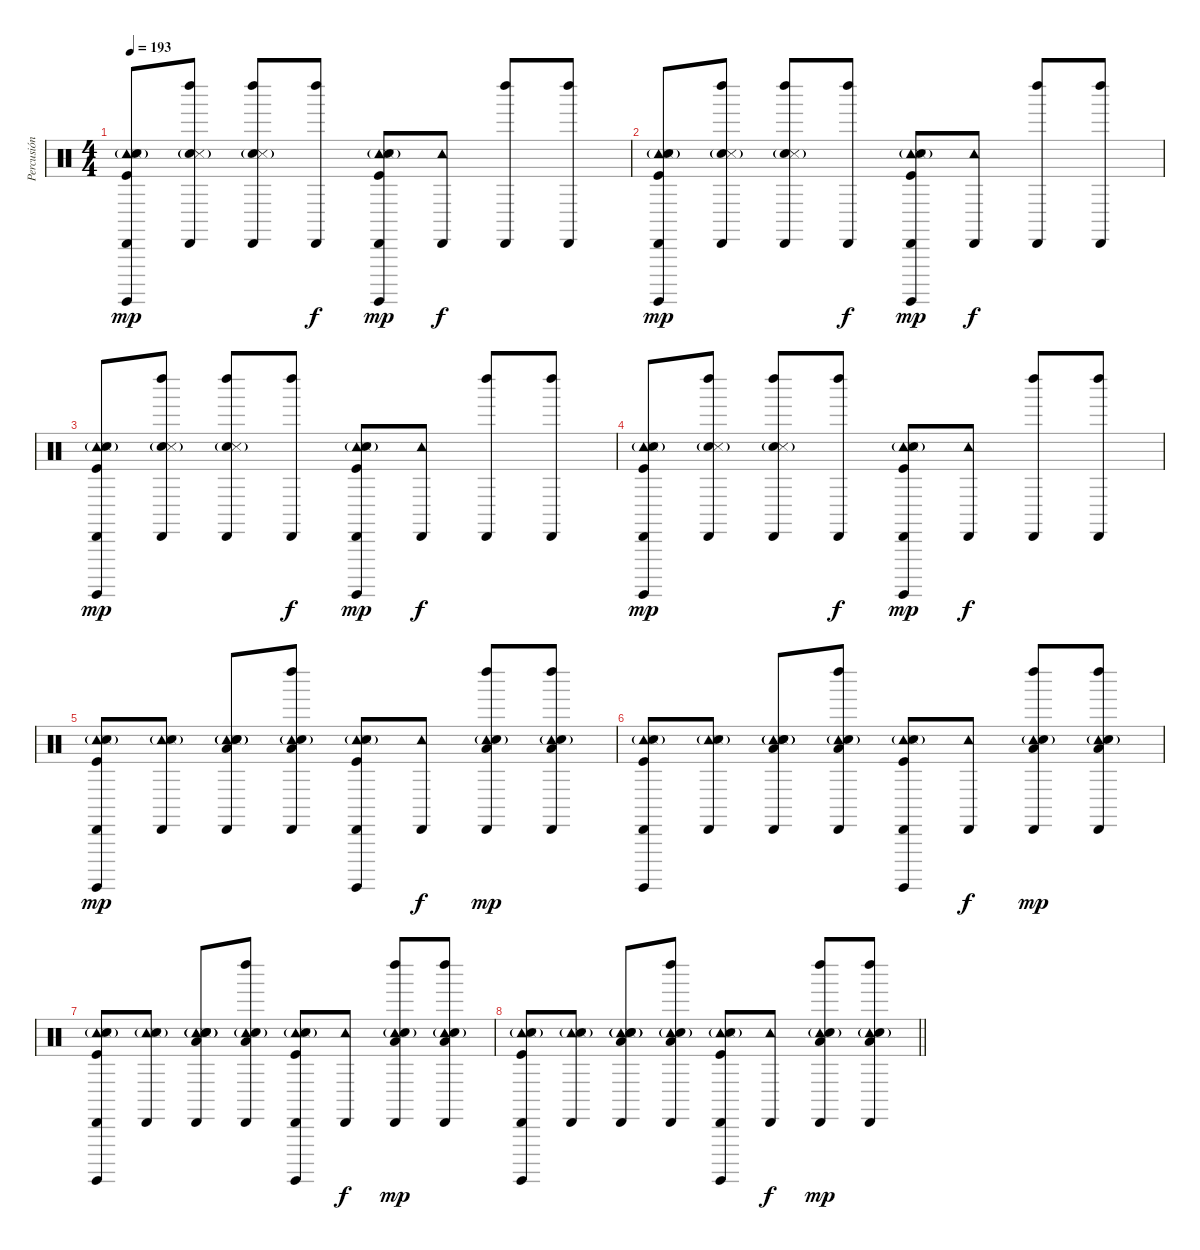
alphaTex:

\track ("Percusión" "Percusión") {instrument percussion}
\staff {score}
\articulation defaults
\ts (4 4)
\tempo 193
\clef neutral
\ks c
("Cabasa (hit)" "Tambourine (hit)" "Hand Clap (hit)"{g} "Metronome (hit)" "Surdo (hit)" "Kick (hit)").8{dy mp} ("Cabasa (hit)" "Left Maraca (hit)" "Hand Clap (hit)"{g} "Metronome (hit)").8 ("Cabasa (hit)" "Left Maraca (hit)" "Hand Clap (hit)"{g} "Metronome (hit)").8 ("Cabasa (hit)" "Left Maraca (hit)").8{dy f} ("Cabasa (hit)" "Tambourine (hit)" "Hand Clap (hit)"{g} "Metronome (hit)" "Surdo (hit)" "Kick (hit)").8{dy mp} ("Cabasa (hit)" "Tambourine (hit)").8{dy f} ("Cabasa (hit)" "Left Maraca (hit)").8 ("Cabasa (hit)" "Left Maraca (hit)").8 |
("Cabasa (hit)" "Tambourine (hit)" "Hand Clap (hit)"{g} "Metronome (hit)" "Surdo (hit)" "Kick (hit)").8{dy mp} ("Cabasa (hit)" "Left Maraca (hit)" "Hand Clap (hit)"{g} "Metronome (hit)").8 ("Cabasa (hit)" "Left Maraca (hit)" "Hand Clap (hit)"{g} "Metronome (hit)").8 ("Cabasa (hit)" "Left Maraca (hit)").8{dy f} ("Cabasa (hit)" "Tambourine (hit)" "Hand Clap (hit)"{g} "Metronome (hit)" "Surdo (hit)" "Kick (hit)").8{dy mp} ("Cabasa (hit)" "Tambourine (hit)").8{dy f} ("Cabasa (hit)" "Left Maraca (hit)").8 ("Cabasa (hit)" "Left Maraca (hit)").8 |
("Cabasa (hit)" "Tambourine (hit)" "Hand Clap (hit)"{g} "Metronome (hit)" "Surdo (hit)" "Kick (hit)").8{dy mp} ("Cabasa (hit)" "Left Maraca (hit)" "Hand Clap (hit)"{g} "Metronome (hit)").8 ("Cabasa (hit)" "Left Maraca (hit)" "Hand Clap (hit)"{g} "Metronome (hit)").8 ("Cabasa (hit)" "Left Maraca (hit)").8{dy f} ("Cabasa (hit)" "Tambourine (hit)" "Hand Clap (hit)"{g} "Metronome (hit)" "Surdo (hit)" "Kick (hit)").8{dy mp} ("Cabasa (hit)" "Tambourine (hit)").8{dy f} ("Cabasa (hit)" "Left Maraca (hit)").8 ("Cabasa (hit)" "Left Maraca (hit)").8 |
("Cabasa (hit)" "Tambourine (hit)" "Hand Clap (hit)"{g} "Metronome (hit)" "Surdo (hit)" "Kick (hit)").8{dy mp} ("Cabasa (hit)" "Left Maraca (hit)" "Hand Clap (hit)"{g} "Metronome (hit)").8 ("Cabasa (hit)" "Left Maraca (hit)" "Hand Clap (hit)"{g} "Metronome (hit)").8 ("Cabasa (hit)" "Left Maraca (hit)").8{dy f} ("Cabasa (hit)" "Tambourine (hit)" "Hand Clap (hit)"{g} "Metronome (hit)" "Surdo (hit)" "Kick (hit)").8{dy mp} ("Cabasa (hit)" "Tambourine (hit)").8{dy f} ("Cabasa (hit)" "Left Maraca (hit)").8 ("Cabasa (hit)" "Left Maraca (hit)").8 |
("Cabasa (hit)" "Tambourine (hit)" "Hand Clap (hit)"{g} "Metronome (hit)" "Surdo (hit)" "Kick (hit)").8{dy mp} ("Cabasa (hit)" "Tambourine (hit)" "Hand Clap (hit)"{g} "Metronome (hit)").8 ("Cabasa (hit)" "Tambourine (hit)" "Hand Clap (hit)"{g} "Metronome (hit)" "Low Tom (hit)" "Electric Snare (hit)"{g}).8 ("Cabasa (hit)" "Tambourine (hit)" "Left Maraca (hit)" "Low Tom (hit)" "Electric Snare (hit)"{g}).8 ("Cabasa (hit)" "Tambourine (hit)" "Hand Clap (hit)"{g} "Metronome (hit)" "Surdo (hit)" "Kick (hit)").8 ("Cabasa (hit)" "Tambourine (hit)").8{dy f} ("Cabasa (hit)" "Tambourine (hit)" "Left Maraca (hit)" "Low Tom (hit)" "Electric Snare (hit)"{g}).8{dy mp} ("Cabasa (hit)" "Tambourine (hit)" "Left Maraca (hit)" "Low Tom (hit)" "Electric Snare (hit)"{g}).8 |
("Cabasa (hit)" "Tambourine (hit)" "Hand Clap (hit)"{g} "Metronome (hit)" "Surdo (hit)" "Kick (hit)").8 ("Cabasa (hit)" "Tambourine (hit)" "Hand Clap (hit)"{g} "Metronome (hit)").8 ("Cabasa (hit)" "Tambourine (hit)" "Hand Clap (hit)"{g} "Metronome (hit)" "Low Tom (hit)" "Electric Snare (hit)"{g}).8 ("Cabasa (hit)" "Tambourine (hit)" "Left Maraca (hit)" "Low Tom (hit)" "Electric Snare (hit)"{g}).8 ("Cabasa (hit)" "Tambourine (hit)" "Hand Clap (hit)"{g} "Metronome (hit)" "Surdo (hit)" "Kick (hit)").8 ("Cabasa (hit)" "Tambourine (hit)").8{dy f} ("Cabasa (hit)" "Tambourine (hit)" "Left Maraca (hit)" "Low Tom (hit)" "Electric Snare (hit)"{g}).8{dy mp} ("Cabasa (hit)" "Tambourine (hit)" "Left Maraca (hit)" "Low Tom (hit)" "Electric Snare (hit)"{g}).8 |
("Cabasa (hit)" "Tambourine (hit)" "Hand Clap (hit)"{g} "Metronome (hit)" "Surdo (hit)" "Kick (hit)").8 ("Cabasa (hit)" "Tambourine (hit)" "Hand Clap (hit)"{g} "Metronome (hit)").8 ("Cabasa (hit)" "Tambourine (hit)" "Hand Clap (hit)"{g} "Metronome (hit)" "Low Tom (hit)" "Electric Snare (hit)"{g}).8 ("Cabasa (hit)" "Tambourine (hit)" "Left Maraca (hit)" "Low Tom (hit)" "Electric Snare (hit)"{g}).8 ("Cabasa (hit)" "Tambourine (hit)" "Hand Clap (hit)"{g} "Metronome (hit)" "Surdo (hit)" "Kick (hit)").8 ("Cabasa (hit)" "Tambourine (hit)").8{dy f} ("Cabasa (hit)" "Tambourine (hit)" "Left Maraca (hit)" "Low Tom (hit)" "Electric Snare (hit)"{g}).8{dy mp} ("Cabasa (hit)" "Tambourine (hit)" "Left Maraca (hit)" "Low Tom (hit)" "Electric Snare (hit)"{g}).8 |
\barLineRight lightlight
("Cabasa (hit)" "Tambourine (hit)" "Hand Clap (hit)"{g} "Metronome (hit)" "Surdo (hit)" "Kick (hit)").8 ("Cabasa (hit)" "Tambourine (hit)" "Hand Clap (hit)"{g} "Metronome (hit)").8 ("Cabasa (hit)" "Tambourine (hit)" "Hand Clap (hit)"{g} "Metronome (hit)" "Low Tom (hit)" "Electric Snare (hit)"{g}).8 ("Cabasa (hit)" "Tambourine (hit)" "Left Maraca (hit)" "Low Tom (hit)" "Electric Snare (hit)"{g}).8 ("Cabasa (hit)" "Tambourine (hit)" "Hand Clap (hit)"{g} "Metronome (hit)" "Surdo (hit)" "Kick (hit)").8 ("Cabasa (hit)" "Tambourine (hit)").8{dy f} ("Cabasa (hit)" "Tambourine (hit)" "Left Maraca (hit)" "Low Tom (hit)" "Electric Snare (hit)"{g}).8{dy mp} ("Cabasa (hit)" "Tambourine (hit)" "Left Maraca (hit)" "Low Tom (hit)" "Electric Snare (hit)"{g}).8
